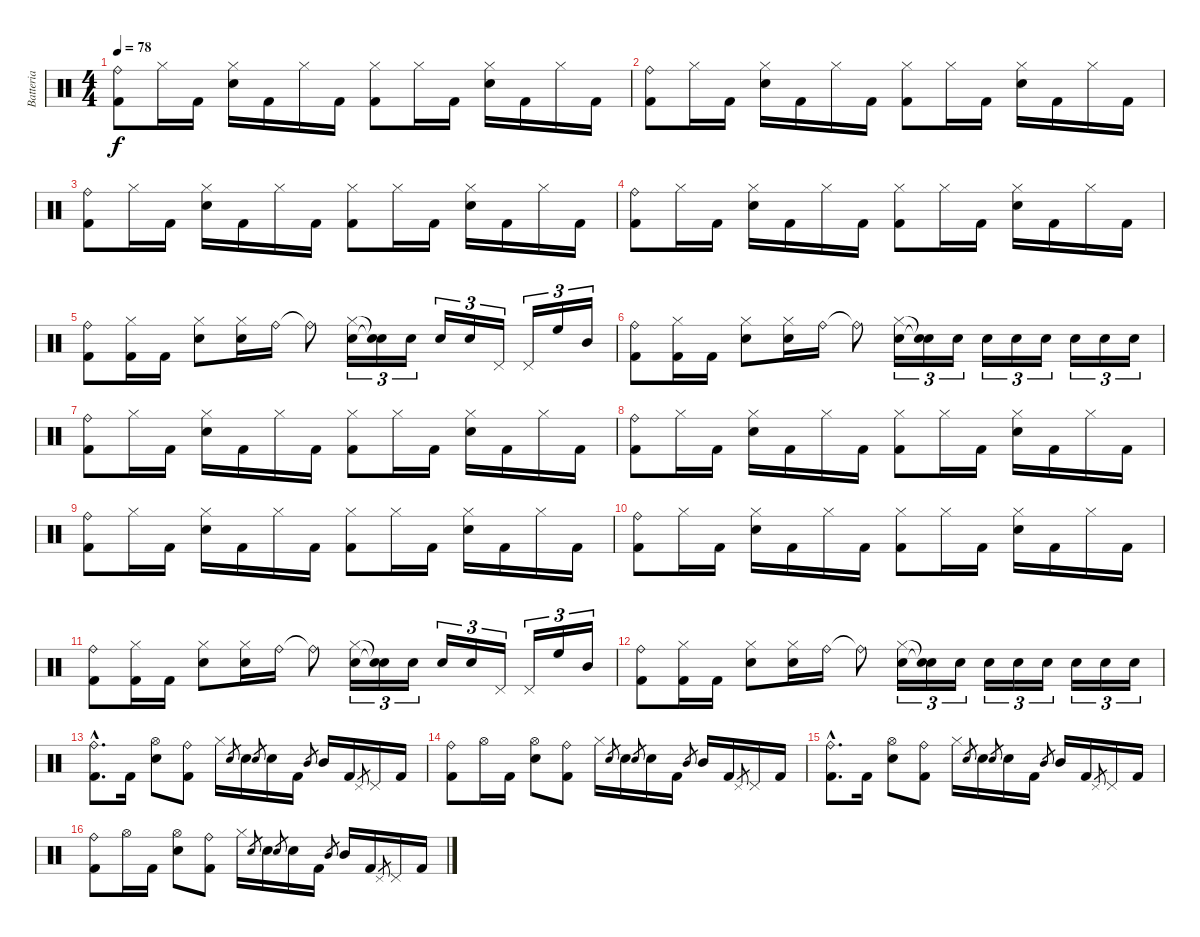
\track ("Batteria" "Batteria") {instrument percussion}
\staff {score}
\articulation defaults
\ts (4 4)
\tempo 78
\clef neutral
\ks c
("Ride (bell)" "Kick (hit) 2").8{dy f} "Hi-Hat (closed)".16 "Kick (hit) 2".16 ("Hi-Hat (closed)" "Snare (hit) 2").16 "Kick (hit) 2".16 "Hi-Hat (closed)".16 "Kick (hit) 2".16 ("Hi-Hat (closed)" "Kick (hit) 2").8 "Hi-Hat (closed)".16 "Kick (hit) 2".16 ("Hi-Hat (closed)" "Snare (hit) 2").16 "Kick (hit) 2".16 "Hi-Hat (closed)".16 "Kick (hit) 2".16 |
("Ride (bell)" "Kick (hit) 2").8 "Hi-Hat (closed)".16 "Kick (hit) 2".16 ("Hi-Hat (closed)" "Snare (hit) 2").16 "Kick (hit) 2".16 "Hi-Hat (closed)".16 "Kick (hit) 2".16 ("Hi-Hat (closed)" "Kick (hit) 2").8 "Hi-Hat (closed)".16 "Kick (hit) 2".16 ("Hi-Hat (closed)" "Snare (hit) 2").16 "Kick (hit) 2".16 "Hi-Hat (closed)".16 "Kick (hit) 2".16 |
("Ride (bell)" "Kick (hit) 2").8 "Hi-Hat (closed)".16 "Kick (hit) 2".16 ("Hi-Hat (closed)" "Snare (hit) 2").16 "Kick (hit) 2".16 "Hi-Hat (closed)".16 "Kick (hit) 2".16 ("Hi-Hat (closed)" "Kick (hit) 2").8 "Hi-Hat (closed)".16 "Kick (hit) 2".16 ("Hi-Hat (closed)" "Snare (hit) 2").16 "Kick (hit) 2".16 "Hi-Hat (closed)".16 "Kick (hit) 2".16 |
("Ride (bell)" "Kick (hit) 2").8 "Hi-Hat (closed)".16 "Kick (hit) 2".16 ("Hi-Hat (closed)" "Snare (hit) 2").16 "Kick (hit) 2".16 "Hi-Hat (closed)".16 "Kick (hit) 2".16 ("Hi-Hat (closed)" "Kick (hit) 2").8 "Hi-Hat (closed)".16 "Kick (hit) 2".16 ("Hi-Hat (closed)" "Snare (hit) 2").16 "Kick (hit) 2".16 "Hi-Hat (closed)".16 "Kick (hit) 2".16 |
("Ride (bell)" "Kick (hit) 2").8 ("Hi-Hat (closed)" "Kick (hit) 2").16 "Kick (hit) 2".16 ("Hi-Hat (closed)" "Snare (hit) 2").8 ("Hi-Hat (closed)" "Snare (hit) 2").16 "Ride (bell)".16 "Ride (bell)"{t}.8 ("Hi-Hat (closed)" "Snare (hit) 2").16{tu (3 2)} ("Snare (hit)"{t} "Snare (hit)"{t}).16{tu (3 2)} "Snare (hit) 2".16{tu (3 2)} "Snare (hit) 2".16{tu (3 2)} "Snare (hit) 2".16{tu (3 2)} "Pedal Hi-Hat (hit)".16{tu (3 2)} "Pedal Hi-Hat (hit)".16{tu (3 2)} "High Floor Tom (hit)".16{tu (3 2)} "Mid Tom (hit)".16{tu (3 2)} |
("Ride (bell)" "Kick (hit) 2").8 ("Hi-Hat (closed)" "Kick (hit) 2").16 "Kick (hit) 2".16 ("Hi-Hat (closed)" "Snare (hit) 2").8 ("Hi-Hat (closed)" "Snare (hit) 2").16 "Ride (bell)".16 "Ride (bell)"{t}.8 ("Hi-Hat (closed)" "Snare (hit) 2").16{tu (3 2)} ("Snare (hit)"{t} "Snare (hit)"{t}).16{tu (3 2)} "Snare (hit) 2".16{tu (3 2)} "Snare (hit) 2".16{tu (3 2)} "Snare (hit) 2".16{tu (3 2)} "Snare (hit) 2".16{tu (3 2)} "Snare (hit) 2".16{tu (3 2)} "Snare (hit) 2".16{tu (3 2)} "Snare (hit) 2".16{tu (3 2)} |
("Ride (bell)" "Kick (hit) 2").8 "Hi-Hat (closed)".16 "Kick (hit) 2".16 ("Hi-Hat (closed)" "Snare (hit) 2").16 "Kick (hit) 2".16 "Hi-Hat (closed)".16 "Kick (hit) 2".16 ("Hi-Hat (closed)" "Kick (hit) 2").8 "Hi-Hat (closed)".16 "Kick (hit) 2".16 ("Hi-Hat (closed)" "Snare (hit) 2").16 "Kick (hit) 2".16 "Hi-Hat (closed)".16 "Kick (hit) 2".16 |
("Ride (bell)" "Kick (hit) 2").8 "Hi-Hat (closed)".16 "Kick (hit) 2".16 ("Hi-Hat (closed)" "Snare (hit) 2").16 "Kick (hit) 2".16 "Hi-Hat (closed)".16 "Kick (hit) 2".16 ("Hi-Hat (closed)" "Kick (hit) 2").8 "Hi-Hat (closed)".16 "Kick (hit) 2".16 ("Hi-Hat (closed)" "Snare (hit) 2").16 "Kick (hit) 2".16 "Hi-Hat (closed)".16 "Kick (hit) 2".16 |
("Ride (bell)" "Kick (hit) 2").8 "Hi-Hat (closed)".16 "Kick (hit) 2".16 ("Hi-Hat (closed)" "Snare (hit) 2").16 "Kick (hit) 2".16 "Hi-Hat (closed)".16 "Kick (hit) 2".16 ("Hi-Hat (closed)" "Kick (hit) 2").8 "Hi-Hat (closed)".16 "Kick (hit) 2".16 ("Hi-Hat (closed)" "Snare (hit) 2").16 "Kick (hit) 2".16 "Hi-Hat (closed)".16 "Kick (hit) 2".16 |
("Ride (bell)" "Kick (hit) 2").8 "Hi-Hat (closed)".16 "Kick (hit) 2".16 ("Hi-Hat (closed)" "Snare (hit) 2").16 "Kick (hit) 2".16 "Hi-Hat (closed)".16 "Kick (hit) 2".16 ("Hi-Hat (closed)" "Kick (hit) 2").8 "Hi-Hat (closed)".16 "Kick (hit) 2".16 ("Hi-Hat (closed)" "Snare (hit) 2").16 "Kick (hit) 2".16 "Hi-Hat (closed)".16 "Kick (hit) 2".16 |
("Ride (bell)" "Kick (hit) 2").8 ("Hi-Hat (closed)" "Kick (hit) 2").16 "Kick (hit) 2".16 ("Hi-Hat (closed)" "Snare (hit) 2").8 ("Hi-Hat (closed)" "Snare (hit) 2").16 "Ride (bell)".16 "Ride (bell)"{t}.8 ("Hi-Hat (closed)" "Snare (hit) 2").16{tu (3 2)} ("Snare (hit)"{t} "Snare (hit)"{t}).16{tu (3 2)} "Snare (hit) 2".16{tu (3 2)} "Snare (hit) 2".16{tu (3 2)} "Snare (hit) 2".16{tu (3 2)} "Pedal Hi-Hat (hit)".16{tu (3 2)} "Pedal Hi-Hat (hit)".16{tu (3 2)} "High Floor Tom (hit)".16{tu (3 2)} "Mid Tom (hit)".16{tu (3 2)} |
("Ride (bell)" "Kick (hit) 2").8 ("Hi-Hat (closed)" "Kick (hit) 2").16 "Kick (hit) 2".16 ("Hi-Hat (closed)" "Snare (hit) 2").8 ("Hi-Hat (closed)" "Snare (hit) 2").16 "Ride (bell)".16 "Ride (bell)"{t}.8 ("Hi-Hat (closed)" "Snare (hit) 2").16{tu (3 2)} ("Snare (hit)"{t} "Snare (hit)"{t}).16{tu (3 2)} "Snare (hit) 2".16{tu (3 2)} "Snare (hit) 2".16{tu (3 2)} "Snare (hit) 2".16{tu (3 2)} "Snare (hit) 2".16{tu (3 2)} "Snare (hit) 2".16{tu (3 2)} "Snare (hit) 2".16{tu (3 2)} "Snare (hit) 2".16{tu (3 2)} |
("Ride (bell)"{hac} "Kick (hit) 2"{hac}).8{d} "Kick (hit) 2".16 ("Hi-Hat (open)" "Snare (hit) 2").8 ("Ride (bell)" "Kick (hit) 2").8 "Hi-Hat (closed)".16 "Snare (hit) 2".8{gr} "Snare (hit) 2".16 "Snare (hit) 2".8{gr} "Snare (hit) 2".16 "Kick (hit) 2".16 "Mid Tom (hit)".8{gr} "Mid Tom (hit)".16 "Kick (hit) 2".16 "Pedal Hi-Hat (hit)".8{gr} "Pedal Hi-Hat (hit)".16 "Kick (hit) 2".16 |
("Ride (bell)" "Kick (hit) 2").8 "Hi-Hat (open)".16 "Kick (hit) 2".16 ("Hi-Hat (open)" "Snare (hit) 2").8 ("Ride (bell)" "Kick (hit) 2").8 "Hi-Hat (closed)".16 "Snare (hit) 2".8{gr} "Snare (hit) 2".16 "Snare (hit) 2".8{gr} "Snare (hit) 2".16 "Kick (hit) 2".16 "Mid Tom (hit)".8{gr} "Mid Tom (hit)".16 "Kick (hit) 2".16 "Pedal Hi-Hat (hit)".8{gr} "Pedal Hi-Hat (hit)".16 "Kick (hit) 2".16 |
("Ride (bell)"{hac} "Kick (hit) 2"{hac}).8{d} "Kick (hit) 2".16 ("Hi-Hat (open)" "Snare (hit) 2").8 ("Ride (bell)" "Kick (hit) 2").8 "Hi-Hat (closed)".16 "Snare (hit) 2".8{gr} "Snare (hit) 2".16 "Snare (hit) 2".8{gr} "Snare (hit) 2".16 "Kick (hit) 2".16 "Mid Tom (hit)".8{gr} "Mid Tom (hit)".16 "Kick (hit) 2".16 "Pedal Hi-Hat (hit)".8{gr} "Pedal Hi-Hat (hit)".16 "Kick (hit) 2".16 |
("Ride (bell)" "Kick (hit) 2").8 "Hi-Hat (open)".16 "Kick (hit) 2".16 ("Hi-Hat (open)" "Snare (hit) 2").8 ("Ride (bell)" "Kick (hit) 2").8 "Hi-Hat (closed)".16 "Snare (hit) 2".8{gr} "Snare (hit) 2".16 "Snare (hit) 2".8{gr} "Snare (hit) 2".16 "Kick (hit) 2".16 "Mid Tom (hit)".8{gr} "Mid Tom (hit)".16 "Kick (hit) 2".16 "Pedal Hi-Hat (hit)".8{gr} "Pedal Hi-Hat (hit)".16 "Kick (hit) 2".16
